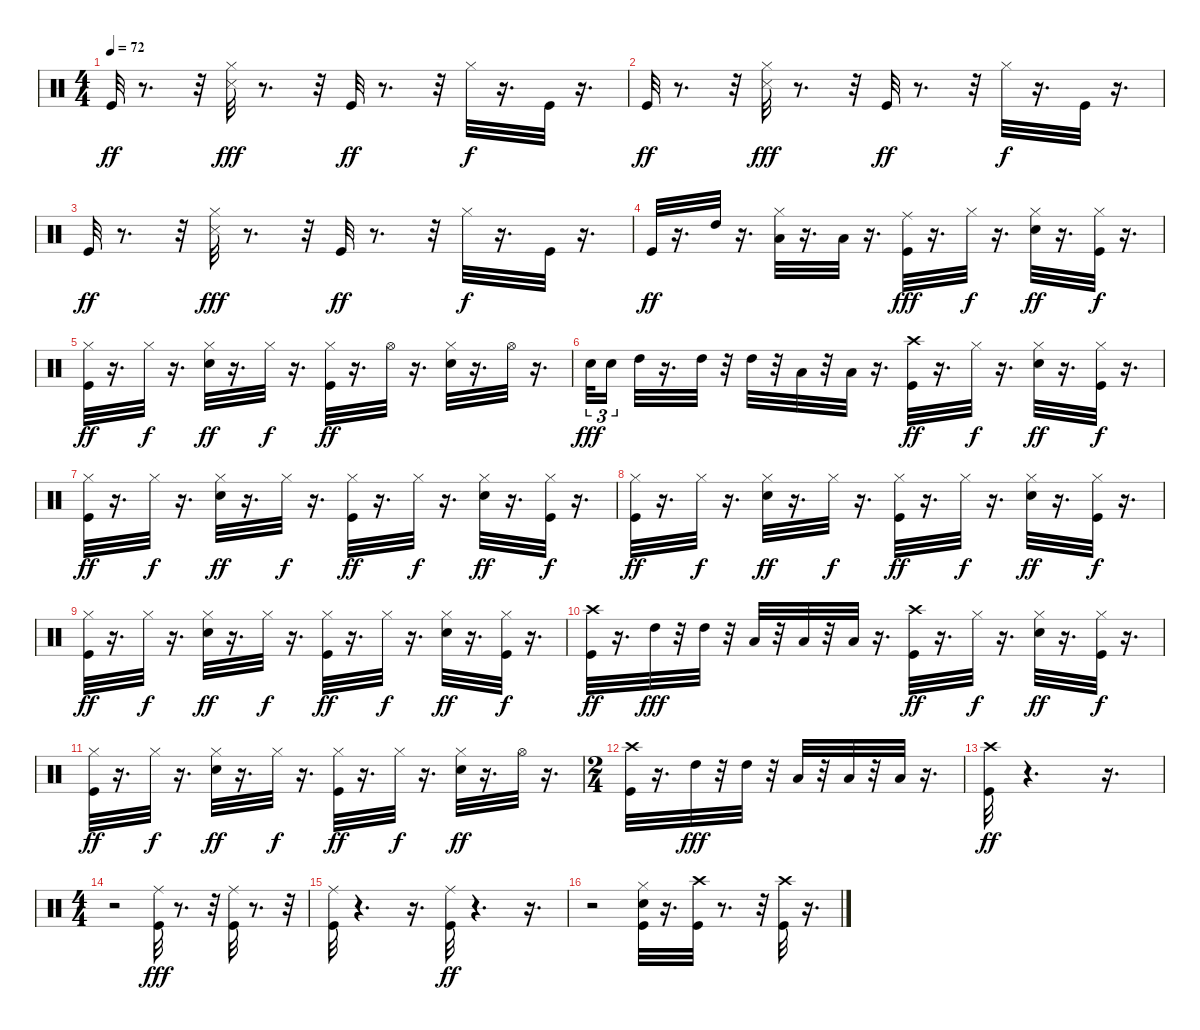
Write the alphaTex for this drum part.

\track (" " " ") {instrument percussion}
\staff {score}
\articulation defaults
\ts (4 4)
\tempo 72
\clef neutral
\ks c "Kick (hit)".32{dy ff}
r.8{d} r.32 ("Snare (side stick) 3" "Hi-Hat (closed)").32{dy fff} r.8{d} r.32 "Kick (hit)".32{dy ff} r.8{d} r.32 "Hi-Hat (closed)".32{dy f} r.16{d} "Kick (hit)".32 r.16{d} |
"Kick (hit)".32{dy ff} r.8{d} r.32 ("Snare (side stick) 3" "Hi-Hat (closed)").32{dy fff} r.8{d} r.32 "Kick (hit)".32{dy ff} r.8{d} r.32 "Hi-Hat (closed)".32{dy f} r.16{d} "Kick (hit)".32 r.16{d} |
"Kick (hit)".32{dy ff} r.8{d} r.32 ("Snare (side stick) 3" "Hi-Hat (closed)").32{dy fff} r.8{d} r.32 "Kick (hit)".32{dy ff} r.8{d} r.32 "Hi-Hat (closed)".32{dy f} r.16{d} "Kick (hit)".32 r.16{d} |
"Kick (hit)".32{dy ff} r.16{d} "High Tom (hit)".32 r.16{d} ("Hi-Hat (closed)" "Low Tom (hit)").32 r.16{d} "Low Floor Tom (hit)".32 r.16{d} ("Kick (hit)" "Ride (middle)").32{dy fff} r.16{d} "Hi-Hat (closed)".32{dy f} r.16{d} ("Electric Snare (hit)" "Hi-Hat (closed)").32{dy ff} r.16{d} ("Kick (hit)" "Hi-Hat (closed)").32{dy f} r.16{d} |
("Kick (hit)" "Hi-Hat (closed)").32{dy ff} r.16{d} "Hi-Hat (closed)".32{dy f} r.16{d} ("Electric Snare (hit)" "Hi-Hat (closed)").32{dy ff} r.16{d} "Hi-Hat (closed)".32{dy f} r.16{d} ("Kick (hit)" "Hi-Hat (closed)").32{dy ff} r.16{d} "Hi-Hat (open)".32 r.16{d} ("Electric Snare (hit)" "Hi-Hat (closed)").32 r.16{d} "Hi-Hat (open)".32 r.16{d} |
"Electric Snare (hit)".32{tu (3 2) dy fff} "Electric Snare (hit)".16{tu (3 2) beam splitsecondary} "High Tom (hit)".32 r.16{d} "High Tom (hit)".32 r.32 "High Tom (hit)".32 r.32 "Low Tom (hit)".32 r.32 "Low Floor Tom (hit)".32 r.16{d} ("Kick (hit)" "Crash high (hit)").32{dy ff} r.16{d} "Hi-Hat (closed)".32{dy f} r.16{d} ("Electric Snare (hit)" "Hi-Hat (closed)").32{dy ff} r.16{d} ("Kick (hit)" "Hi-Hat (closed)").32{dy f} r.16{d} |
("Kick (hit)" "Hi-Hat (closed)").32{dy ff} r.16{d} "Hi-Hat (closed)".32{dy f} r.16{d} ("Electric Snare (hit)" "Hi-Hat (closed)").32{dy ff} r.16{d} "Hi-Hat (closed)".32{dy f} r.16{d} ("Kick (hit)" "Hi-Hat (closed)").32{dy ff} r.16{d} "Hi-Hat (closed)".32{dy f} r.16{d} ("Electric Snare (hit)" "Hi-Hat (closed)").32{dy ff} r.16{d} ("Kick (hit)" "Hi-Hat (closed)").32{dy f} r.16{d} |
("Kick (hit)" "Hi-Hat (closed)").32{dy ff} r.16{d} "Hi-Hat (closed)".32{dy f} r.16{d} ("Electric Snare (hit)" "Hi-Hat (closed)").32{dy ff} r.16{d} "Hi-Hat (closed)".32{dy f} r.16{d} ("Kick (hit)" "Hi-Hat (closed)").32{dy ff} r.16{d} "Hi-Hat (closed)".32{dy f} r.16{d} ("Electric Snare (hit)" "Hi-Hat (closed)").32{dy ff} r.16{d} ("Kick (hit)" "Hi-Hat (closed)").32{dy f} r.16{d} |
("Kick (hit)" "Hi-Hat (closed)").32{dy ff} r.16{d} "Hi-Hat (closed)".32{dy f} r.16{d} ("Electric Snare (hit)" "Hi-Hat (closed)").32{dy ff} r.16{d} "Hi-Hat (closed)".32{dy f} r.16{d} ("Kick (hit)" "Hi-Hat (closed)").32{dy ff} r.16{d} "Hi-Hat (closed)".32{dy f} r.16{d} ("Electric Snare (hit)" "Hi-Hat (closed)").32{dy ff} r.16{d} ("Kick (hit)" "Hi-Hat (closed)").32{dy f} r.16{d} |
("Kick (hit)" "Crash high (hit)").32{dy ff} r.16{d} "High Tom (hit)".32{dy fff} r.32 "High Tom (hit)".32 r.32 "Low Tom (hit)".32 r.32 "Low Tom (hit)".32 r.32 "Low Floor Tom (hit)".32 r.16{d} ("Kick (hit)" "Crash high (hit)").32{dy ff} r.16{d} "Hi-Hat (closed)".32{dy f} r.16{d} ("Electric Snare (hit)" "Hi-Hat (closed)").32{dy ff} r.16{d} ("Kick (hit)" "Hi-Hat (closed)").32{dy f} r.16{d} |
("Kick (hit)" "Hi-Hat (closed)").32{dy ff} r.16{d} "Hi-Hat (closed)".32{dy f} r.16{d} ("Electric Snare (hit)" "Hi-Hat (closed)").32{dy ff} r.16{d} "Hi-Hat (closed)".32{dy f} r.16{d} ("Kick (hit)" "Hi-Hat (closed)").32{dy ff} r.16{d} "Hi-Hat (closed)".32{dy f} r.16{d} ("Electric Snare (hit)" "Hi-Hat (closed)").32{dy ff} r.16{d} "Hi-Hat (open)".32 r.16{d} |
\ts (2 4)
("Kick (hit)" "Crash high (hit)").32 r.16{d} "High Tom (hit)".32{dy fff} r.32 "High Tom (hit)".32 r.32 "Low Tom (hit)".32 r.32 "Low Tom (hit)".32 r.32 "Low Floor Tom (hit)".32 r.16{d} |
("Kick (hit)" "Crash high (hit)").32{dy ff} r.4{d} r.16{d} |
\ts (4 4)
r.2 ("Kick (hit)" "Ride (middle)").32{dy fff} r.8{d} r.32 ("Kick (hit)" "Ride (middle)").32 r.8{d} r.32 |
("Kick (hit)" "Ride (middle)").32 r.4{d} r.16{d} ("Kick (hit)" "Ride (middle)").32{dy ff} r.4{d} r.16{d} |
r.2 ("Kick (hit)" "Electric Snare (hit)" "Hi-Hat (closed)").32 r.16{d} ("Kick (hit)" "Crash high (hit)").32 r.8{d} r.32 ("Kick (hit)" "Crash high (hit)").32 r.16{d}
